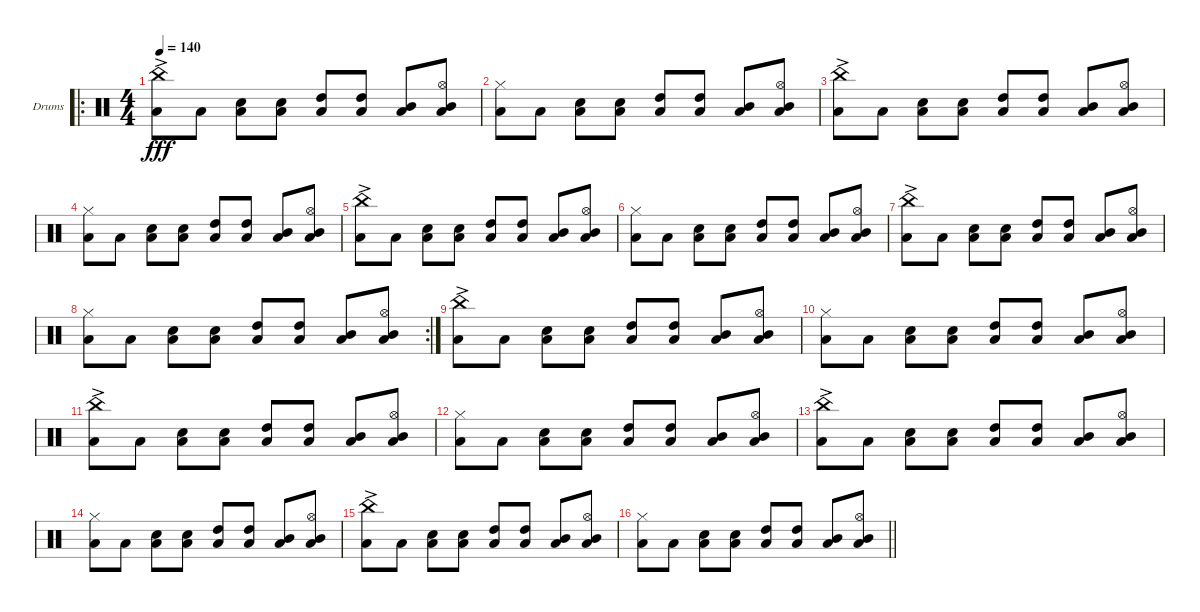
\defaultSystemsLayout 4
\bracketExtendMode groupsimilarinstruments
\firstSystemTrackNameOrientation horizontal
\otherSystemsTrackNameOrientation horizontal
\track ("Drumkit" "Drums") {instrument percussion}
\staff {score}
\articulation defaults
\ro
\ts (4 4)
\tempo 140
\clef neutral
\scale
0.377049
\ks c
("Low Tom (hit)" "China (hit)"{ac}).8{dy fff} "Low Tom (hit)".8 ("Low Tom (hit)" "Snare (hit) 2").8 ("Low Tom (hit)" "Snare (hit) 2").8 ("Low Tom (hit)" "High Tom (hit)").8 ("Low Tom (hit)" "High Tom (hit)").8 ("Low Tom (hit)" "Mid Tom (hit)").8{beam invert} ("Low Tom (hit)" "Mid Tom (hit)" "Hi-Hat (open)").8 |
\scale
0.311475 ("Low Tom (hit)" "Hi-Hat (closed)").8 "Low Tom (hit)".8 ("Low Tom (hit)" "Snare (hit) 2").8 ("Low Tom (hit)" "Snare (hit) 2").8 ("Low Tom (hit)" "High Tom (hit)").8 ("Low Tom (hit)" "High Tom (hit)").8 ("Low Tom (hit)" "Mid Tom (hit)").8{beam invert} ("Low Tom (hit)" "Mid Tom (hit)" "Hi-Hat (open)").8 |
\scale
0.311475 ("Low Tom (hit)" "China (hit)"{ac}).8 "Low Tom (hit)".8 ("Low Tom (hit)" "Snare (hit) 2").8 ("Low Tom (hit)" "Snare (hit) 2").8 ("Low Tom (hit)" "High Tom (hit)").8 ("Low Tom (hit)" "High Tom (hit)").8 ("Low Tom (hit)" "Mid Tom (hit)").8{beam invert} ("Low Tom (hit)" "Mid Tom (hit)" "Hi-Hat (open)").8 |
\scale
0.333333 ("Low Tom (hit)" "Hi-Hat (closed)").8 "Low Tom (hit)".8 ("Low Tom (hit)" "Snare (hit) 2").8 ("Low Tom (hit)" "Snare (hit) 2").8 ("Low Tom (hit)" "High Tom (hit)").8 ("Low Tom (hit)" "High Tom (hit)").8 ("Low Tom (hit)" "Mid Tom (hit)").8{beam invert} ("Low Tom (hit)" "Mid Tom (hit)" "Hi-Hat (open)").8 |
\scale
0.333333 ("Low Tom (hit)" "China (hit)"{ac}).8 "Low Tom (hit)".8 ("Low Tom (hit)" "Snare (hit) 2").8 ("Low Tom (hit)" "Snare (hit) 2").8 ("Low Tom (hit)" "High Tom (hit)").8 ("Low Tom (hit)" "High Tom (hit)").8 ("Low Tom (hit)" "Mid Tom (hit)").8{beam invert} ("Low Tom (hit)" "Mid Tom (hit)" "Hi-Hat (open)").8 |
\scale
0.333333 ("Low Tom (hit)" "Hi-Hat (closed)").8 "Low Tom (hit)".8 ("Low Tom (hit)" "Snare (hit) 2").8 ("Low Tom (hit)" "Snare (hit) 2").8 ("Low Tom (hit)" "High Tom (hit)").8 ("Low Tom (hit)" "High Tom (hit)").8 ("Low Tom (hit)" "Mid Tom (hit)").8{beam invert} ("Low Tom (hit)" "Mid Tom (hit)" "Hi-Hat (open)").8 |
\scale
0.322034 ("Low Tom (hit)" "China (hit)"{ac}).8 "Low Tom (hit)".8 ("Low Tom (hit)" "Snare (hit) 2").8 ("Low Tom (hit)" "Snare (hit) 2").8 ("Low Tom (hit)" "High Tom (hit)").8 ("Low Tom (hit)" "High Tom (hit)").8 ("Low Tom (hit)" "Mid Tom (hit)").8{beam invert} ("Low Tom (hit)" "Mid Tom (hit)" "Hi-Hat (open)").8 |
\rc 2
\scale
0.355932 ("Low Tom (hit)" "Hi-Hat (closed)").8 "Low Tom (hit)".8 ("Low Tom (hit)" "Snare (hit) 2").8 ("Low Tom (hit)" "Snare (hit) 2").8 ("Low Tom (hit)" "High Tom (hit)").8 ("Low Tom (hit)" "High Tom (hit)").8 ("Low Tom (hit)" "Mid Tom (hit)").8{beam invert} ("Low Tom (hit)" "Mid Tom (hit)" "Hi-Hat (open)").8 |
\scale
0.322034 ("Low Tom (hit)" "China (hit)"{ac}).8 "Low Tom (hit)".8 ("Low Tom (hit)" "Snare (hit) 2").8 ("Low Tom (hit)" "Snare (hit) 2").8 ("Low Tom (hit)" "High Tom (hit)").8 ("Low Tom (hit)" "High Tom (hit)").8 ("Low Tom (hit)" "Mid Tom (hit)").8{beam invert} ("Low Tom (hit)" "Mid Tom (hit)" "Hi-Hat (open)").8 |
\scale
0.333333 ("Low Tom (hit)" "Hi-Hat (closed)").8 "Low Tom (hit)".8 ("Low Tom (hit)" "Snare (hit) 2").8 ("Low Tom (hit)" "Snare (hit) 2").8 ("Low Tom (hit)" "High Tom (hit)").8 ("Low Tom (hit)" "High Tom (hit)").8 ("Low Tom (hit)" "Mid Tom (hit)").8{beam invert} ("Low Tom (hit)" "Mid Tom (hit)" "Hi-Hat (open)").8 |
\scale
0.333333 ("Low Tom (hit)" "China (hit)"{ac}).8 "Low Tom (hit)".8 ("Low Tom (hit)" "Snare (hit) 2").8 ("Low Tom (hit)" "Snare (hit) 2").8 ("Low Tom (hit)" "High Tom (hit)").8 ("Low Tom (hit)" "High Tom (hit)").8 ("Low Tom (hit)" "Mid Tom (hit)").8{beam invert} ("Low Tom (hit)" "Mid Tom (hit)" "Hi-Hat (open)").8 |
\scale
0.333333 ("Low Tom (hit)" "Hi-Hat (closed)").8 "Low Tom (hit)".8 ("Low Tom (hit)" "Snare (hit) 2").8 ("Low Tom (hit)" "Snare (hit) 2").8 ("Low Tom (hit)" "High Tom (hit)").8 ("Low Tom (hit)" "High Tom (hit)").8 ("Low Tom (hit)" "Mid Tom (hit)").8{beam invert} ("Low Tom (hit)" "Mid Tom (hit)" "Hi-Hat (open)").8 |
\scale
0.333333 ("Low Tom (hit)" "China (hit)"{ac}).8 "Low Tom (hit)".8 ("Low Tom (hit)" "Snare (hit) 2").8 ("Low Tom (hit)" "Snare (hit) 2").8 ("Low Tom (hit)" "High Tom (hit)").8 ("Low Tom (hit)" "High Tom (hit)").8 ("Low Tom (hit)" "Mid Tom (hit)").8{beam invert} ("Low Tom (hit)" "Mid Tom (hit)" "Hi-Hat (open)").8 |
\scale
0.333333 ("Low Tom (hit)" "Hi-Hat (closed)").8 "Low Tom (hit)".8 ("Low Tom (hit)" "Snare (hit) 2").8 ("Low Tom (hit)" "Snare (hit) 2").8 ("Low Tom (hit)" "High Tom (hit)").8 ("Low Tom (hit)" "High Tom (hit)").8 ("Low Tom (hit)" "Mid Tom (hit)").8{beam invert} ("Low Tom (hit)" "Mid Tom (hit)" "Hi-Hat (open)").8 |
\scale
0.333333 ("Low Tom (hit)" "China (hit)"{ac}).8 "Low Tom (hit)".8 ("Low Tom (hit)" "Snare (hit) 2").8 ("Low Tom (hit)" "Snare (hit) 2").8 ("Low Tom (hit)" "High Tom (hit)").8 ("Low Tom (hit)" "High Tom (hit)").8 ("Low Tom (hit)" "Mid Tom (hit)").8{beam invert} ("Low Tom (hit)" "Mid Tom (hit)" "Hi-Hat (open)").8 |
\scale
0.311475
\barLineRight lightlight
("Low Tom (hit)" "Hi-Hat (closed)").8 "Low Tom (hit)".8 ("Low Tom (hit)" "Snare (hit) 2").8 ("Low Tom (hit)" "Snare (hit) 2").8 ("Low Tom (hit)" "High Tom (hit)").8 ("Low Tom (hit)" "High Tom (hit)").8 ("Low Tom (hit)" "Mid Tom (hit)").8{beam invert} ("Low Tom (hit)" "Mid Tom (hit)" "Hi-Hat (open)").8
